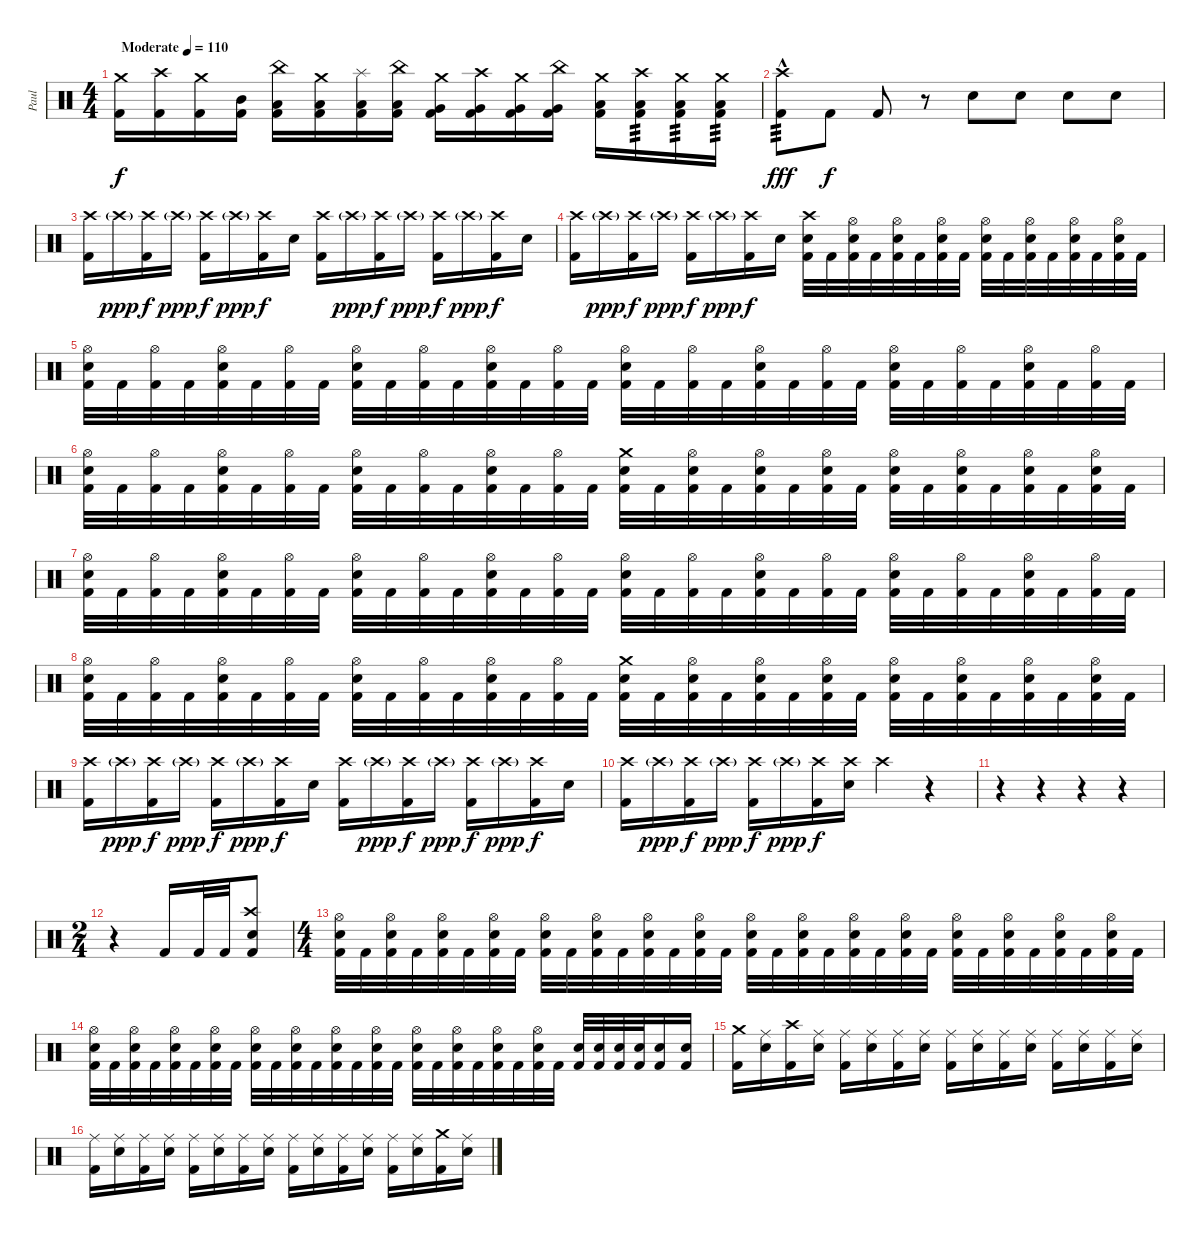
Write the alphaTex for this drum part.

\track ("Paul" "Paul") {solo instrument percussion}
\staff {score}
\articulation defaults
\ts (4 4)
\tempo (110 "Moderate")
\clef neutral
\ks c
("Crash medium (hit)" "Kick (hit) 2").16{dy f} ("Crash high (hit)" "Kick (hit) 2").16 ("Crash medium (hit)" "Kick (hit) 2").16 ("Mid Tom (hit)" "Kick (hit) 2").16 ("China (hit)" "Low Tom (hit)" "Kick (hit) 2").16 ("Crash medium (hit)" "Low Tom (hit)" "Kick (hit) 2").16 ("Splash (hit)" "Low Tom (hit)" "Kick (hit) 2").16 ("China (hit)" "Low Tom (hit)" "Kick (hit) 2").16 ("Crash medium (hit)" "Very Low Tom (hit)" "Kick (hit) 2").16 ("Crash high (hit)" "Very Low Tom (hit)" "Kick (hit) 2").16 ("Crash medium (hit)" "Very Low Tom (hit)" "Kick (hit) 2").16 ("China (hit)" "Very Low Tom (hit)" "Kick (hit) 2").16 ("Crash medium (hit)" "Low Floor Tom (hit)" "Kick (hit) 2").16 ("Crash high (hit)" "Low Floor Tom (hit)" "Kick (hit) 2").16{tp 3} ("Crash medium (hit)" "Low Floor Tom (hit)" "Kick (hit) 2").16{tp 3} ("Crash medium (hit)" "Low Floor Tom (hit)" "Kick (hit) 2").16{tp 3} |
("Crash high (hit)"{hac} "Kick (hit) 2").8{tp 3 dy fff} "Kick (hit) 2".8{dy f} "Kick (hit) 2".8 r.8 "Electric Snare (hit)".8 "Electric Snare (hit)".8 "Electric Snare (hit)".8 "Electric Snare (hit)".8 |
("Crash high (hit)" "Kick (hit) 2").16 "Crash high (hit)"{g}.16{dy ppp} ("Crash high (hit)" "Kick (hit) 2").16{dy f} "Crash high (hit)"{g}.16{dy ppp} ("Crash high (hit)" "Kick (hit) 2").16{dy f} "Crash high (hit)"{g}.16{dy ppp} ("Crash high (hit)" "Kick (hit) 2").16{dy f} "Electric Snare (hit)".16 ("Crash high (hit)" "Kick (hit) 2").16 "Crash high (hit)"{g}.16{dy ppp} ("Crash high (hit)" "Kick (hit) 2").16{dy f} "Crash high (hit)"{g}.16{dy ppp} ("Crash high (hit)" "Kick (hit) 2").16{dy f} "Crash high (hit)"{g}.16{dy ppp} ("Crash high (hit)" "Kick (hit) 2").16{dy f} "Electric Snare (hit)".16 |
("Crash high (hit)" "Kick (hit) 2").16 "Crash high (hit)"{g}.16{dy ppp} ("Crash high (hit)" "Kick (hit) 2").16{dy f} "Crash high (hit)"{g}.16{dy ppp} ("Crash high (hit)" "Kick (hit) 2").16{dy f} "Crash high (hit)"{g}.16{dy ppp} ("Crash high (hit)" "Kick (hit) 2").16{dy f} "Electric Snare (hit)".16 ("Crash high (hit)" "Electric Snare (hit)" "Kick (hit) 2").32 "Kick (hit) 2".32 ("Hi-Hat (open)" "Electric Snare (hit)" "Kick (hit) 2").32 "Kick (hit) 2".32 ("Hi-Hat (open)" "Electric Snare (hit)" "Kick (hit) 2").32 "Kick (hit) 2".32 ("Hi-Hat (open)" "Electric Snare (hit)" "Kick (hit) 2").32 "Kick (hit) 2".32 ("Hi-Hat (open)" "Electric Snare (hit)" "Kick (hit) 2").32 "Kick (hit) 2".32 ("Hi-Hat (open)" "Electric Snare (hit)" "Kick (hit) 2").32 "Kick (hit) 2".32 ("Hi-Hat (open)" "Electric Snare (hit)" "Kick (hit) 2").32 "Kick (hit) 2".32 ("Hi-Hat (open)" "Electric Snare (hit)" "Kick (hit) 2").32 "Kick (hit) 2".32 |
("Hi-Hat (open)" "Electric Snare (hit)" "Kick (hit) 2").32 "Kick (hit) 2".32 ("Hi-Hat (open)" "Kick (hit) 2").32 "Kick (hit) 2".32 ("Hi-Hat (open)" "Electric Snare (hit)" "Kick (hit) 2").32 "Kick (hit) 2".32 ("Hi-Hat (open)" "Kick (hit) 2").32 "Kick (hit) 2".32 ("Hi-Hat (open)" "Electric Snare (hit)" "Kick (hit) 2").32 "Kick (hit) 2".32 ("Hi-Hat (open)" "Kick (hit) 2").32 "Kick (hit) 2".32 ("Hi-Hat (open)" "Electric Snare (hit)" "Kick (hit) 2").32 "Kick (hit) 2".32 ("Hi-Hat (open)" "Kick (hit) 2").32 "Kick (hit) 2".32 ("Hi-Hat (open)" "Electric Snare (hit)" "Kick (hit) 2").32 "Kick (hit) 2".32 ("Hi-Hat (open)" "Kick (hit) 2").32 "Kick (hit) 2".32 ("Hi-Hat (open)" "Electric Snare (hit)" "Kick (hit) 2").32 "Kick (hit) 2".32 ("Hi-Hat (open)" "Kick (hit) 2").32 "Kick (hit) 2".32 ("Hi-Hat (open)" "Electric Snare (hit)" "Kick (hit) 2").32 "Kick (hit) 2".32 ("Hi-Hat (open)" "Kick (hit) 2").32 "Kick (hit) 2".32 ("Hi-Hat (open)" "Electric Snare (hit)" "Kick (hit) 2").32 "Kick (hit) 2".32 ("Hi-Hat (open)" "Kick (hit) 2").32 "Kick (hit) 2".32 |
("Hi-Hat (open)" "Electric Snare (hit)" "Kick (hit) 2").32 "Kick (hit) 2".32 ("Hi-Hat (open)" "Kick (hit) 2").32 "Kick (hit) 2".32 ("Hi-Hat (open)" "Electric Snare (hit)" "Kick (hit) 2").32 "Kick (hit) 2".32 ("Hi-Hat (open)" "Kick (hit) 2").32 "Kick (hit) 2".32 ("Hi-Hat (open)" "Electric Snare (hit)" "Kick (hit) 2").32 "Kick (hit) 2".32 ("Hi-Hat (open)" "Kick (hit) 2").32 "Kick (hit) 2".32 ("Hi-Hat (open)" "Electric Snare (hit)" "Kick (hit) 2").32 "Kick (hit) 2".32 ("Hi-Hat (open)" "Kick (hit) 2").32 "Kick (hit) 2".32 ("Crash medium (hit)" "Electric Snare (hit)" "Kick (hit) 2").32 "Kick (hit) 2".32 ("Hi-Hat (open)" "Electric Snare (hit)" "Kick (hit) 2").32 "Kick (hit) 2".32 ("Hi-Hat (open)" "Electric Snare (hit)" "Kick (hit) 2").32 "Kick (hit) 2".32 ("Hi-Hat (open)" "Electric Snare (hit)" "Kick (hit) 2").32 "Kick (hit) 2".32 ("Hi-Hat (open)" "Electric Snare (hit)" "Kick (hit) 2").32 "Kick (hit) 2".32 ("Hi-Hat (open)" "Electric Snare (hit)" "Kick (hit) 2").32 "Kick (hit) 2".32 ("Hi-Hat (open)" "Electric Snare (hit)" "Kick (hit) 2").32 "Kick (hit) 2".32 ("Hi-Hat (open)" "Electric Snare (hit)" "Kick (hit) 2").32 "Kick (hit) 2".32 |
("Hi-Hat (open)" "Electric Snare (hit)" "Kick (hit) 2").32 "Kick (hit) 2".32 ("Hi-Hat (open)" "Kick (hit) 2").32 "Kick (hit) 2".32 ("Hi-Hat (open)" "Electric Snare (hit)" "Kick (hit) 2").32 "Kick (hit) 2".32 ("Hi-Hat (open)" "Kick (hit) 2").32 "Kick (hit) 2".32 ("Hi-Hat (open)" "Electric Snare (hit)" "Kick (hit) 2").32 "Kick (hit) 2".32 ("Hi-Hat (open)" "Kick (hit) 2").32 "Kick (hit) 2".32 ("Hi-Hat (open)" "Electric Snare (hit)" "Kick (hit) 2").32 "Kick (hit) 2".32 ("Hi-Hat (open)" "Kick (hit) 2").32 "Kick (hit) 2".32 ("Hi-Hat (open)" "Electric Snare (hit)" "Kick (hit) 2").32 "Kick (hit) 2".32 ("Hi-Hat (open)" "Kick (hit) 2").32 "Kick (hit) 2".32 ("Hi-Hat (open)" "Electric Snare (hit)" "Kick (hit) 2").32 "Kick (hit) 2".32 ("Hi-Hat (open)" "Kick (hit) 2").32 "Kick (hit) 2".32 ("Hi-Hat (open)" "Electric Snare (hit)" "Kick (hit) 2").32 "Kick (hit) 2".32 ("Hi-Hat (open)" "Kick (hit) 2").32 "Kick (hit) 2".32 ("Hi-Hat (open)" "Electric Snare (hit)" "Kick (hit) 2").32 "Kick (hit) 2".32 ("Hi-Hat (open)" "Kick (hit) 2").32 "Kick (hit) 2".32 |
("Hi-Hat (open)" "Electric Snare (hit)" "Kick (hit) 2").32 "Kick (hit) 2".32 ("Hi-Hat (open)" "Kick (hit) 2").32 "Kick (hit) 2".32 ("Hi-Hat (open)" "Electric Snare (hit)" "Kick (hit) 2").32 "Kick (hit) 2".32 ("Hi-Hat (open)" "Kick (hit) 2").32 "Kick (hit) 2".32 ("Hi-Hat (open)" "Electric Snare (hit)" "Kick (hit) 2").32 "Kick (hit) 2".32 ("Hi-Hat (open)" "Kick (hit) 2").32 "Kick (hit) 2".32 ("Hi-Hat (open)" "Electric Snare (hit)" "Kick (hit) 2").32 "Kick (hit) 2".32 ("Hi-Hat (open)" "Kick (hit) 2").32 "Kick (hit) 2".32 ("Crash medium (hit)" "Electric Snare (hit)" "Kick (hit) 2").32 "Kick (hit) 2".32 ("Hi-Hat (open)" "Electric Snare (hit)" "Kick (hit) 2").32 "Kick (hit) 2".32 ("Hi-Hat (open)" "Electric Snare (hit)" "Kick (hit) 2").32 "Kick (hit) 2".32 ("Hi-Hat (open)" "Electric Snare (hit)" "Kick (hit) 2").32 "Kick (hit) 2".32 ("Hi-Hat (open)" "Electric Snare (hit)" "Kick (hit) 2").32 "Kick (hit) 2".32 ("Hi-Hat (open)" "Electric Snare (hit)" "Kick (hit) 2").32 "Kick (hit) 2".32 ("Hi-Hat (open)" "Electric Snare (hit)" "Kick (hit) 2").32 "Kick (hit) 2".32 ("Hi-Hat (open)" "Electric Snare (hit)" "Kick (hit) 2").32 "Kick (hit) 2".32 |
("Crash high (hit)" "Kick (hit) 2").16 "Crash high (hit)"{g}.16{dy ppp} ("Crash high (hit)" "Kick (hit) 2").16{dy f} "Crash high (hit)"{g}.16{dy ppp} ("Crash high (hit)" "Kick (hit) 2").16{dy f} "Crash high (hit)"{g}.16{dy ppp} ("Crash high (hit)" "Kick (hit) 2").16{dy f} "Electric Snare (hit)".16 ("Crash high (hit)" "Kick (hit) 2").16 "Crash high (hit)"{g}.16{dy ppp} ("Crash high (hit)" "Kick (hit) 2").16{dy f} "Crash high (hit)"{g}.16{dy ppp} ("Crash high (hit)" "Kick (hit) 2").16{dy f} "Crash high (hit)"{g}.16{dy ppp} ("Crash high (hit)" "Kick (hit) 2").16{dy f} "Electric Snare (hit)".16 |
("Crash high (hit)" "Kick (hit) 2").16 "Crash high (hit)"{g}.16{dy ppp} ("Crash high (hit)" "Kick (hit) 2").16{dy f} "Crash high (hit)"{g}.16{dy ppp} ("Crash high (hit)" "Kick (hit) 2").16{dy f} "Crash high (hit)"{g}.16{dy ppp} ("Crash high (hit)" "Kick (hit) 2").16{dy f} ("Crash high (hit)" "Electric Snare (hit)").16 "Crash high (hit)".4 r.4 |
r.4 r.4 r.4 r.4 |
\ts (2 4)
r.4 "Kick (hit) 2".16 "Kick (hit) 2".32 "Kick (hit) 2".32 ("Crash high (hit)" "Electric Snare (hit)" "Kick (hit) 2").8 |
\ts (4 4)
("Hi-Hat (open)" "Electric Snare (hit)" "Kick (hit) 2").32 "Kick (hit) 2".32 ("Hi-Hat (open)" "Electric Snare (hit)" "Kick (hit) 2").32 "Kick (hit) 2".32 ("Hi-Hat (open)" "Electric Snare (hit)" "Kick (hit) 2").32 "Kick (hit) 2".32 ("Hi-Hat (open)" "Electric Snare (hit)" "Kick (hit) 2").32 "Kick (hit) 2".32 ("Hi-Hat (open)" "Electric Snare (hit)" "Kick (hit) 2").32 "Kick (hit) 2".32 ("Hi-Hat (open)" "Electric Snare (hit)" "Kick (hit) 2").32 "Kick (hit) 2".32 ("Hi-Hat (open)" "Electric Snare (hit)" "Kick (hit) 2").32 "Kick (hit) 2".32 ("Hi-Hat (open)" "Electric Snare (hit)" "Kick (hit) 2").32 "Kick (hit) 2".32 ("Hi-Hat (open)" "Electric Snare (hit)" "Kick (hit) 2").32 "Kick (hit) 2".32 ("Hi-Hat (open)" "Electric Snare (hit)" "Kick (hit) 2").32 "Kick (hit) 2".32 ("Hi-Hat (open)" "Electric Snare (hit)" "Kick (hit) 2").32 "Kick (hit) 2".32 ("Hi-Hat (open)" "Electric Snare (hit)" "Kick (hit) 2").32 "Kick (hit) 2".32 ("Hi-Hat (open)" "Electric Snare (hit)" "Kick (hit) 2").32 "Kick (hit) 2".32 ("Hi-Hat (open)" "Electric Snare (hit)" "Kick (hit) 2").32 "Kick (hit) 2".32 ("Hi-Hat (open)" "Electric Snare (hit)" "Kick (hit) 2").32 "Kick (hit) 2".32 ("Hi-Hat (open)" "Electric Snare (hit)" "Kick (hit) 2").32 "Kick (hit) 2".32 |
("Hi-Hat (open)" "Electric Snare (hit)" "Kick (hit) 2").32 "Kick (hit) 2".32 ("Hi-Hat (open)" "Electric Snare (hit)" "Kick (hit) 2").32 "Kick (hit) 2".32 ("Hi-Hat (open)" "Electric Snare (hit)" "Kick (hit) 2").32 "Kick (hit) 2".32 ("Hi-Hat (open)" "Electric Snare (hit)" "Kick (hit) 2").32 "Kick (hit) 2".32 ("Hi-Hat (open)" "Electric Snare (hit)" "Kick (hit) 2").32 "Kick (hit) 2".32 ("Hi-Hat (open)" "Electric Snare (hit)" "Kick (hit) 2").32 "Kick (hit) 2".32 ("Hi-Hat (open)" "Electric Snare (hit)" "Kick (hit) 2").32 "Kick (hit) 2".32 ("Hi-Hat (open)" "Electric Snare (hit)" "Kick (hit) 2").32 "Kick (hit) 2".32 ("Hi-Hat (open)" "Electric Snare (hit)" "Kick (hit) 2").32 "Kick (hit) 2".32 ("Hi-Hat (open)" "Electric Snare (hit)" "Kick (hit) 2").32 "Kick (hit) 2".32 ("Hi-Hat (open)" "Electric Snare (hit)" "Kick (hit) 2").32 "Kick (hit) 2".32 ("Hi-Hat (open)" "Electric Snare (hit)" "Kick (hit) 2").32 "Kick (hit) 2".32 ("Electric Snare (hit)" "Kick (hit) 2").32 ("Electric Snare (hit)" "Kick (hit) 2").32 ("Electric Snare (hit)" "Kick (hit) 2").32 ("Electric Snare (hit)" "Kick (hit) 2").32 ("Electric Snare (hit)" "Kick (hit) 2").16 ("Electric Snare (hit)" "Kick (hit) 2").16 |
("Crash medium (hit)" "Kick (hit) 2").16 ("Ride (middle)" "Electric Snare (hit)").16 ("Crash high (hit)" "Kick (hit) 2").16 ("Ride (middle)" "Electric Snare (hit)").16 ("Ride (middle)" "Kick (hit) 2").16 ("Ride (middle)" "Electric Snare (hit)").16 ("Ride (middle)" "Kick (hit) 2").16 ("Ride (middle)" "Electric Snare (hit)").16 ("Ride (middle)" "Kick (hit) 2").16 ("Ride (middle)" "Electric Snare (hit)").16 ("Ride (middle)" "Kick (hit) 2").16 ("Ride (middle)" "Electric Snare (hit)").16 ("Ride (middle)" "Kick (hit) 2").16 ("Ride (middle)" "Electric Snare (hit)").16 ("Ride (middle)" "Kick (hit) 2").16 ("Ride (middle)" "Electric Snare (hit)").16 |
("Ride (middle)" "Kick (hit) 2").16 ("Ride (middle)" "Electric Snare (hit)").16 ("Ride (middle)" "Kick (hit) 2").16 ("Ride (middle)" "Electric Snare (hit)").16 ("Ride (middle)" "Kick (hit) 2").16 ("Ride (middle)" "Electric Snare (hit)").16 ("Ride (middle)" "Kick (hit) 2").16 ("Ride (middle)" "Electric Snare (hit)").16 ("Ride (middle)" "Kick (hit) 2").16 ("Ride (middle)" "Electric Snare (hit)").16 ("Ride (middle)" "Kick (hit) 2").16 ("Ride (middle)" "Electric Snare (hit)").16 ("Ride (middle)" "Kick (hit) 2").16 ("Ride (middle)" "Electric Snare (hit)").16 ("Crash medium (hit)" "Kick (hit) 2").16 ("Ride (middle)" "Electric Snare (hit)").16
